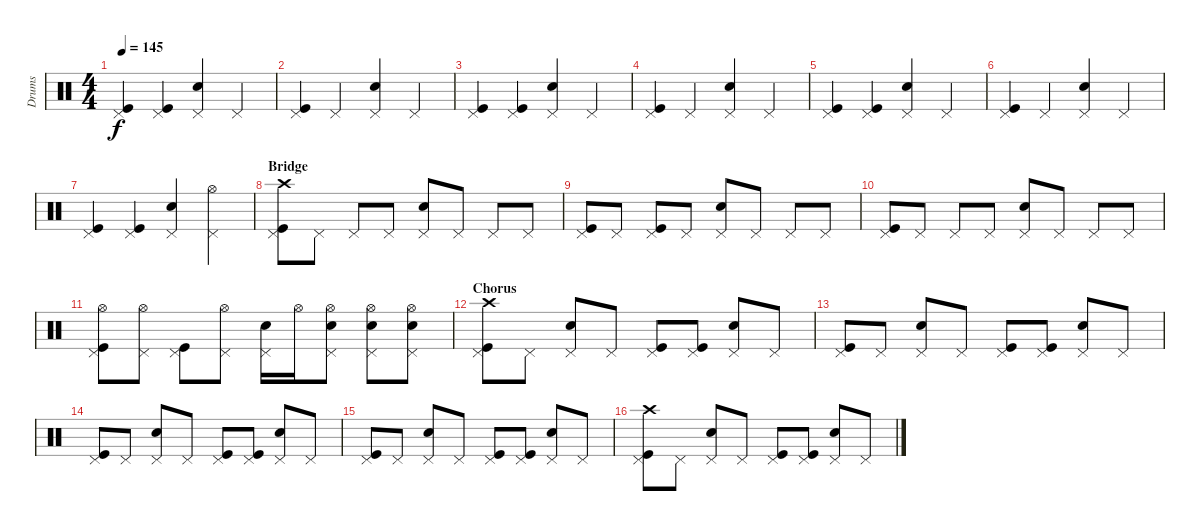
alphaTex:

\track ("Drums" "Drums") {instrument percussion}
\staff {score}
\articulation defaults
\ts (4 4)
\tempo 145
\clef neutral
\ks c
("Pedal Hi-Hat (hit)" "Kick (hit)").4{dy f} ("Pedal Hi-Hat (hit)" "Kick (hit)").4 ("Pedal Hi-Hat (hit)" "Snare (hit) 2").4 "Pedal Hi-Hat (hit)".4 |
("Pedal Hi-Hat (hit)" "Kick (hit)").4 "Pedal Hi-Hat (hit)".4 ("Pedal Hi-Hat (hit)" "Snare (hit) 2").4 "Pedal Hi-Hat (hit)".4 |
("Pedal Hi-Hat (hit)" "Kick (hit)").4 ("Pedal Hi-Hat (hit)" "Kick (hit)").4 ("Pedal Hi-Hat (hit)" "Snare (hit) 2").4 "Pedal Hi-Hat (hit)".4 |
("Pedal Hi-Hat (hit)" "Kick (hit)").4 "Pedal Hi-Hat (hit)".4 ("Pedal Hi-Hat (hit)" "Snare (hit) 2").4 "Pedal Hi-Hat (hit)".4 |
("Pedal Hi-Hat (hit)" "Kick (hit)").4 ("Pedal Hi-Hat (hit)" "Kick (hit)").4 ("Pedal Hi-Hat (hit)" "Snare (hit) 2").4 "Pedal Hi-Hat (hit)".4 |
("Pedal Hi-Hat (hit)" "Kick (hit)").4 "Pedal Hi-Hat (hit)".4 ("Pedal Hi-Hat (hit)" "Snare (hit) 2").4 "Pedal Hi-Hat (hit)".4 |
("Pedal Hi-Hat (hit)" "Kick (hit)").4 ("Pedal Hi-Hat (hit)" "Kick (hit)").4 ("Pedal Hi-Hat (hit)" "Snare (hit) 2").4 ("Pedal Hi-Hat (hit)" "Hi-Hat (open)").4 |
\section ("" "Bridge")
("Crash high (hit)" "Pedal Hi-Hat (hit)" "Kick (hit)").8 "Pedal Hi-Hat (hit)".8 "Pedal Hi-Hat (hit)".8 "Pedal Hi-Hat (hit)".8 ("Pedal Hi-Hat (hit)" "Snare (hit) 2").8 "Pedal Hi-Hat (hit)".8 "Pedal Hi-Hat (hit)".8 "Pedal Hi-Hat (hit)".8 |
("Pedal Hi-Hat (hit)" "Kick (hit)").8 "Pedal Hi-Hat (hit)".8 ("Pedal Hi-Hat (hit)" "Kick (hit)").8 "Pedal Hi-Hat (hit)".8 ("Pedal Hi-Hat (hit)" "Snare (hit) 2").8 "Pedal Hi-Hat (hit)".8 "Pedal Hi-Hat (hit)".8 "Pedal Hi-Hat (hit)".8 |
("Pedal Hi-Hat (hit)" "Kick (hit)").8 "Pedal Hi-Hat (hit)".8 "Pedal Hi-Hat (hit)".8 "Pedal Hi-Hat (hit)".8 ("Pedal Hi-Hat (hit)" "Snare (hit) 2").8 "Pedal Hi-Hat (hit)".8 "Pedal Hi-Hat (hit)".8 "Pedal Hi-Hat (hit)".8 |
("Pedal Hi-Hat (hit)" "Hi-Hat (open)" "Kick (hit)").8 ("Pedal Hi-Hat (hit)" "Hi-Hat (open)").8 ("Pedal Hi-Hat (hit)" "Kick (hit)").8 ("Pedal Hi-Hat (hit)" "Hi-Hat (open)").8 ("Pedal Hi-Hat (hit)" "Snare (hit) 2").16 "Hi-Hat (open)".16 ("Pedal Hi-Hat (hit)" "Snare (hit) 2" "Hi-Hat (open)").8 ("Pedal Hi-Hat (hit)" "Snare (hit) 2" "Hi-Hat (open)").8 ("Pedal Hi-Hat (hit)" "Snare (hit) 2" "Hi-Hat (open)").8 |
\section ("" "Chorus")
("Crash high (hit)" "Pedal Hi-Hat (hit)" "Kick (hit)").8 "Pedal Hi-Hat (hit)".8 ("Pedal Hi-Hat (hit)" "Snare (hit) 2").8 "Pedal Hi-Hat (hit)".8 ("Pedal Hi-Hat (hit)" "Kick (hit)").8 ("Pedal Hi-Hat (hit)" "Kick (hit)").8 ("Pedal Hi-Hat (hit)" "Snare (hit) 2").8 "Pedal Hi-Hat (hit)".8 |
("Pedal Hi-Hat (hit)" "Kick (hit)").8 "Pedal Hi-Hat (hit)".8 ("Pedal Hi-Hat (hit)" "Snare (hit) 2").8 "Pedal Hi-Hat (hit)".8 ("Pedal Hi-Hat (hit)" "Kick (hit)").8 ("Pedal Hi-Hat (hit)" "Kick (hit)").8 ("Pedal Hi-Hat (hit)" "Snare (hit) 2").8 "Pedal Hi-Hat (hit)".8 |
("Pedal Hi-Hat (hit)" "Kick (hit)").8 "Pedal Hi-Hat (hit)".8 ("Pedal Hi-Hat (hit)" "Snare (hit) 2").8 "Pedal Hi-Hat (hit)".8 ("Pedal Hi-Hat (hit)" "Kick (hit)").8 ("Pedal Hi-Hat (hit)" "Kick (hit)").8 ("Pedal Hi-Hat (hit)" "Snare (hit) 2").8 "Pedal Hi-Hat (hit)".8 |
("Pedal Hi-Hat (hit)" "Kick (hit)").8 "Pedal Hi-Hat (hit)".8 ("Pedal Hi-Hat (hit)" "Snare (hit) 2").8 "Pedal Hi-Hat (hit)".8 ("Pedal Hi-Hat (hit)" "Kick (hit)").8 ("Pedal Hi-Hat (hit)" "Kick (hit)").8 ("Pedal Hi-Hat (hit)" "Snare (hit) 2").8 "Pedal Hi-Hat (hit)".8 |
("Crash high (hit)" "Pedal Hi-Hat (hit)" "Kick (hit)").8 "Pedal Hi-Hat (hit)".8 ("Pedal Hi-Hat (hit)" "Snare (hit) 2").8 "Pedal Hi-Hat (hit)".8 ("Pedal Hi-Hat (hit)" "Kick (hit)").8 ("Pedal Hi-Hat (hit)" "Kick (hit)").8 ("Pedal Hi-Hat (hit)" "Snare (hit) 2").8 "Pedal Hi-Hat (hit)".8
